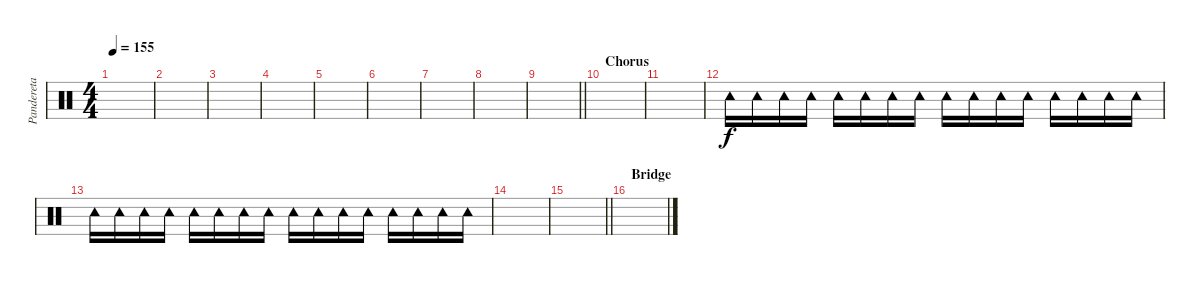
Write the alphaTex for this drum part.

\track ("Pandereta" "Pandereta") {instrument percussion}
\staff {score}
\articulation defaults
\ts (4 4)
\tempo 155
\clef neutral
\ks c
|
|
|
|
|
|
|
|
\barLineRight lightlight
|
\section ("" "Chorus")
|
|
"Tambourine (hit)".16 "Tambourine (hit)".16 "Tambourine (hit)".16 "Tambourine (hit)".16 "Tambourine (hit)".16 "Tambourine (hit)".16 "Tambourine (hit)".16 "Tambourine (hit)".16 "Tambourine (hit)".16 "Tambourine (hit)".16 "Tambourine (hit)".16 "Tambourine (hit)".16 "Tambourine (hit)".16 "Tambourine (hit)".16 "Tambourine (hit)".16 "Tambourine (hit)".16 |
"Tambourine (hit)".16 "Tambourine (hit)".16 "Tambourine (hit)".16 "Tambourine (hit)".16 "Tambourine (hit)".16 "Tambourine (hit)".16 "Tambourine (hit)".16 "Tambourine (hit)".16 "Tambourine (hit)".16 "Tambourine (hit)".16 "Tambourine (hit)".16 "Tambourine (hit)".16 "Tambourine (hit)".16 "Tambourine (hit)".16 "Tambourine (hit)".16 "Tambourine (hit)".16 |
|
\barLineRight lightlight
|
\section ("" "Bridge")
